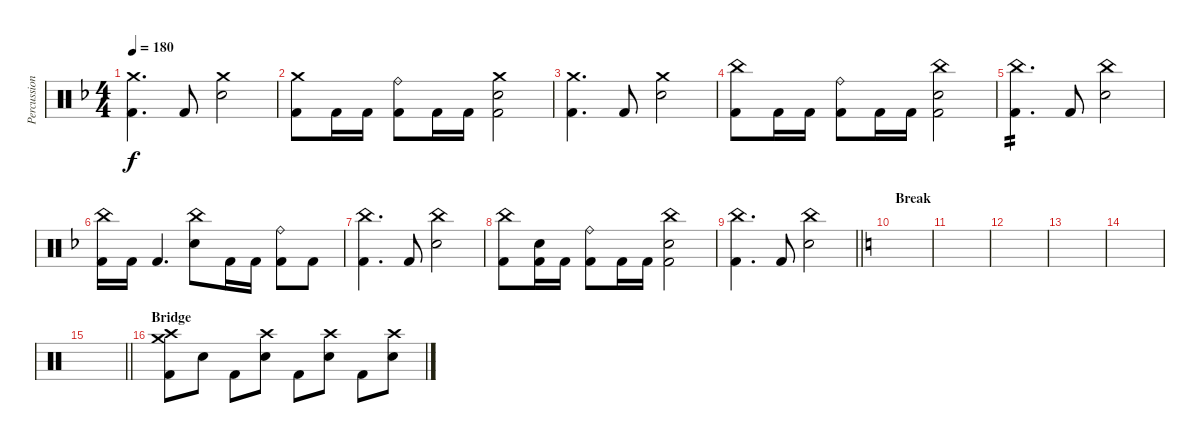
\track ("Percussion" "Percussion") {instrument percussion}
\staff {score}
\articulation defaults
\ts (4 4)
\tempo 180
\clef neutral
\ks f
("Crash medium (hit)" "Kick (hit) 2").4{d dy f} "Kick (hit) 2".8 ("Crash medium (hit)" "Electric Snare (hit)").2 |
("Crash medium (hit)" "Kick (hit) 2").8 "Kick (hit) 2".16 "Kick (hit) 2".16 ("Ride (bell)" "Kick (hit) 2").8 "Kick (hit) 2".16 "Kick (hit) 2".16 ("Crash medium (hit)" "Electric Snare (hit)" "Kick (hit) 2").2 |
("Crash medium (hit)" "Kick (hit) 2").4{d} "Kick (hit) 2".8 ("Crash medium (hit)" "Electric Snare (hit)").2 |
("China (hit)" "Kick (hit) 2").8 "Kick (hit) 2".16 "Kick (hit) 2".16 ("Ride (bell)" "Kick (hit) 2").8 "Kick (hit) 2".16 "Kick (hit) 2".16 ("China (hit)" "Electric Snare (hit)" "Kick (hit) 2").2 |
("China (hit)" "Kick (hit) 2").4{d tp 2} "Kick (hit) 2".8 ("China (hit)" "Electric Snare (hit)").2 |
("China (hit)" "Kick (hit) 2").16 "Kick (hit) 2".16 "Kick (hit) 2".4{d} ("China (hit)" "Electric Snare (hit)").8 "Kick (hit) 2".16 "Kick (hit) 2".16 ("Ride (bell)" "Kick (hit) 2").8 "Kick (hit) 2".8 |
("China (hit)" "Kick (hit) 2").4{d} "Kick (hit) 2".8 ("China (hit)" "Electric Snare (hit)").2 |
("China (hit)" "Kick (hit) 2").8 ("Snare (hit)" "Kick (hit) 2").16 "Kick (hit) 2".16 ("Ride (bell)" "Kick (hit) 2").8 "Kick (hit) 2".16 "Kick (hit) 2".16 ("China (hit)" "Electric Snare (hit)" "Kick (hit) 2").2 |
\barLineRight lightlight
("China (hit)" "Kick (hit) 2").4{d} "Kick (hit) 2".8 ("China (hit)" "Electric Snare (hit)").2 |
\section ("" "Break")
\ks c
|
|
|
|
|
\barLineRight lightlight
|
\section ("" "Bridge")
("Crash high (hit)" "Crash medium (hit)" "Kick (hit) 2").8 "Electric Snare (hit)".8 "Kick (hit) 2".8 ("Crash high (hit)" "Electric Snare (hit)").8 "Kick (hit) 2".8 ("Crash high (hit)" "Electric Snare (hit)").8 "Kick (hit) 2".8 ("Crash high (hit)" "Electric Snare (hit)").8
